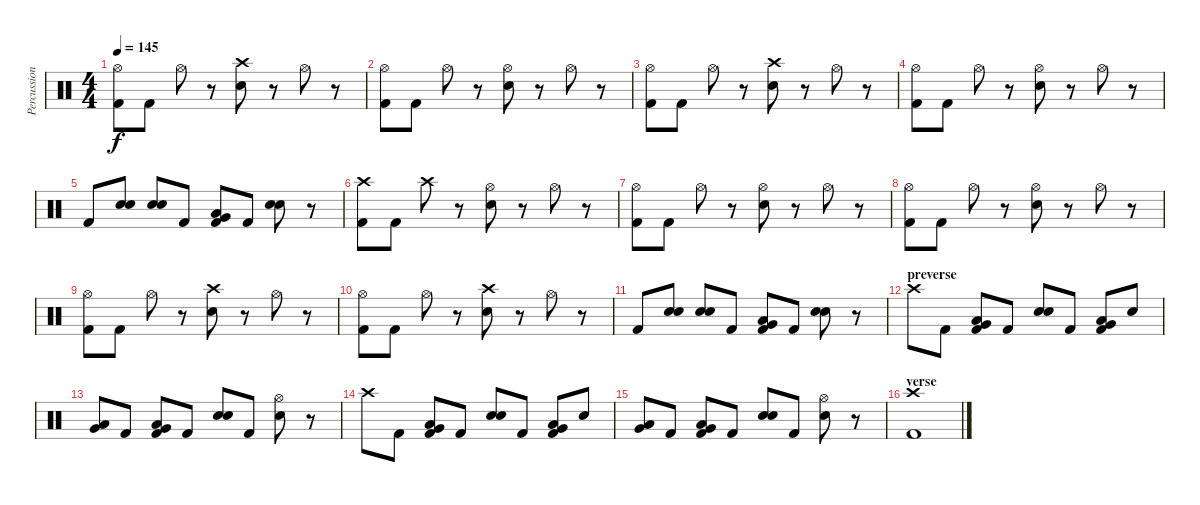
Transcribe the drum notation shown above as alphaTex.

\track ("Percussion" "Percussion") {instrument percussion}
\staff {score}
\articulation defaults
\ts (4 4)
\tempo 145
\clef neutral
\ks c
("Hi-Hat (open)" "Kick (hit) 2").8{dy f} "Kick (hit) 2".8 "Hi-Hat (open)".8 r.8 ("Crash high (hit)" "Electric Snare (hit)").8 r.8 "Hi-Hat (open)".8 r.8 |
("Hi-Hat (open)" "Kick (hit) 2").8 "Kick (hit) 2".8 "Hi-Hat (open)".8 r.8 ("Hi-Hat (open)" "Electric Snare (hit)").8 r.8 "Hi-Hat (open)".8 r.8 |
("Hi-Hat (open)" "Kick (hit) 2").8 "Kick (hit) 2".8 "Hi-Hat (open)".8 r.8 ("Crash high (hit)" "Electric Snare (hit)").8 r.8 "Hi-Hat (open)".8 r.8 |
("Hi-Hat (open)" "Kick (hit) 2").8 "Kick (hit) 2".8 "Hi-Hat (open)".8 r.8 ("Hi-Hat (open)" "Electric Snare (hit)").8 r.8 "Hi-Hat (open)".8 r.8 |
"Kick (hit) 2".8 ("Electric Snare (hit)" "Electric Snare (hit)").8 ("Electric Snare (hit)" "Electric Snare (hit)").8 "Kick (hit) 2".8 ("Low Tom (hit)" "Very Low Tom (hit)" "Kick (hit) 2").8 "Kick (hit) 2".8 ("Electric Snare (hit)" "Electric Snare (hit)").8 r.8 |
("Crash high (hit)" "Kick (hit) 2").8 "Kick (hit) 2".8 "Crash high (hit)".8 r.8 ("Hi-Hat (open)" "Electric Snare (hit)").8 r.8 "Hi-Hat (open)".8 r.8 |
("Hi-Hat (open)" "Kick (hit) 2").8 "Kick (hit) 2".8 "Hi-Hat (open)".8 r.8 ("Hi-Hat (open)" "Electric Snare (hit)").8 r.8 "Hi-Hat (open)".8 r.8 |
("Hi-Hat (open)" "Kick (hit) 2").8 "Kick (hit) 2".8 "Hi-Hat (open)".8 r.8 ("Hi-Hat (open)" "Electric Snare (hit)").8 r.8 "Hi-Hat (open)".8 r.8 |
("Hi-Hat (open)" "Kick (hit) 2").8 "Kick (hit) 2".8 "Hi-Hat (open)".8 r.8 ("Crash high (hit)" "Electric Snare (hit)").8 r.8 "Hi-Hat (open)".8 r.8 |
("Hi-Hat (open)" "Kick (hit) 2").8 "Kick (hit) 2".8 "Hi-Hat (open)".8 r.8 ("Crash high (hit)" "Electric Snare (hit)").8 r.8 "Hi-Hat (open)".8 r.8 |
"Kick (hit) 2".8 ("Electric Snare (hit)" "Electric Snare (hit)").8 ("Electric Snare (hit)" "Electric Snare (hit)").8 "Kick (hit) 2".8 ("Low Tom (hit)" "Very Low Tom (hit)" "Kick (hit) 2").8 "Kick (hit) 2".8 ("Electric Snare (hit)" "Electric Snare (hit)").8 r.8 |
\section ("" "preverse")
"Crash high (hit)".8 "Kick (hit) 2".8 ("Low Tom (hit)" "Very Low Tom (hit)" "Kick (hit) 2").8 "Kick (hit) 2".8 ("Electric Snare (hit)" "Electric Snare (hit)").8 "Kick (hit) 2".8 ("Low Tom (hit)" "Very Low Tom (hit)" "Kick (hit) 2").8 "Electric Snare (hit)".8 |
("Low Tom (hit)" "Very Low Tom (hit)").8 "Kick (hit) 2".8 ("Low Tom (hit)" "Very Low Tom (hit)" "Kick (hit) 2").8 "Kick (hit) 2".8 ("Electric Snare (hit)" "Electric Snare (hit)").8 "Kick (hit) 2".8 ("Hi-Hat (open)" "Electric Snare (hit)").8 r.8 |
"Crash high (hit)".8 "Kick (hit) 2".8 ("Low Tom (hit)" "Very Low Tom (hit)" "Kick (hit) 2").8 "Kick (hit) 2".8 ("Electric Snare (hit)" "Electric Snare (hit)").8 "Kick (hit) 2".8 ("Low Tom (hit)" "Very Low Tom (hit)" "Kick (hit) 2").8 "Electric Snare (hit)".8 |
("Low Tom (hit)" "Very Low Tom (hit)").8 "Kick (hit) 2".8 ("Low Tom (hit)" "Very Low Tom (hit)" "Kick (hit) 2").8 "Kick (hit) 2".8 ("Electric Snare (hit)" "Electric Snare (hit)").8 "Kick (hit) 2".8 ("Hi-Hat (open)" "Electric Snare (hit)").8 r.8 |
\section ("" "verse")
("Crash high (hit)" "Kick (hit) 2").1
